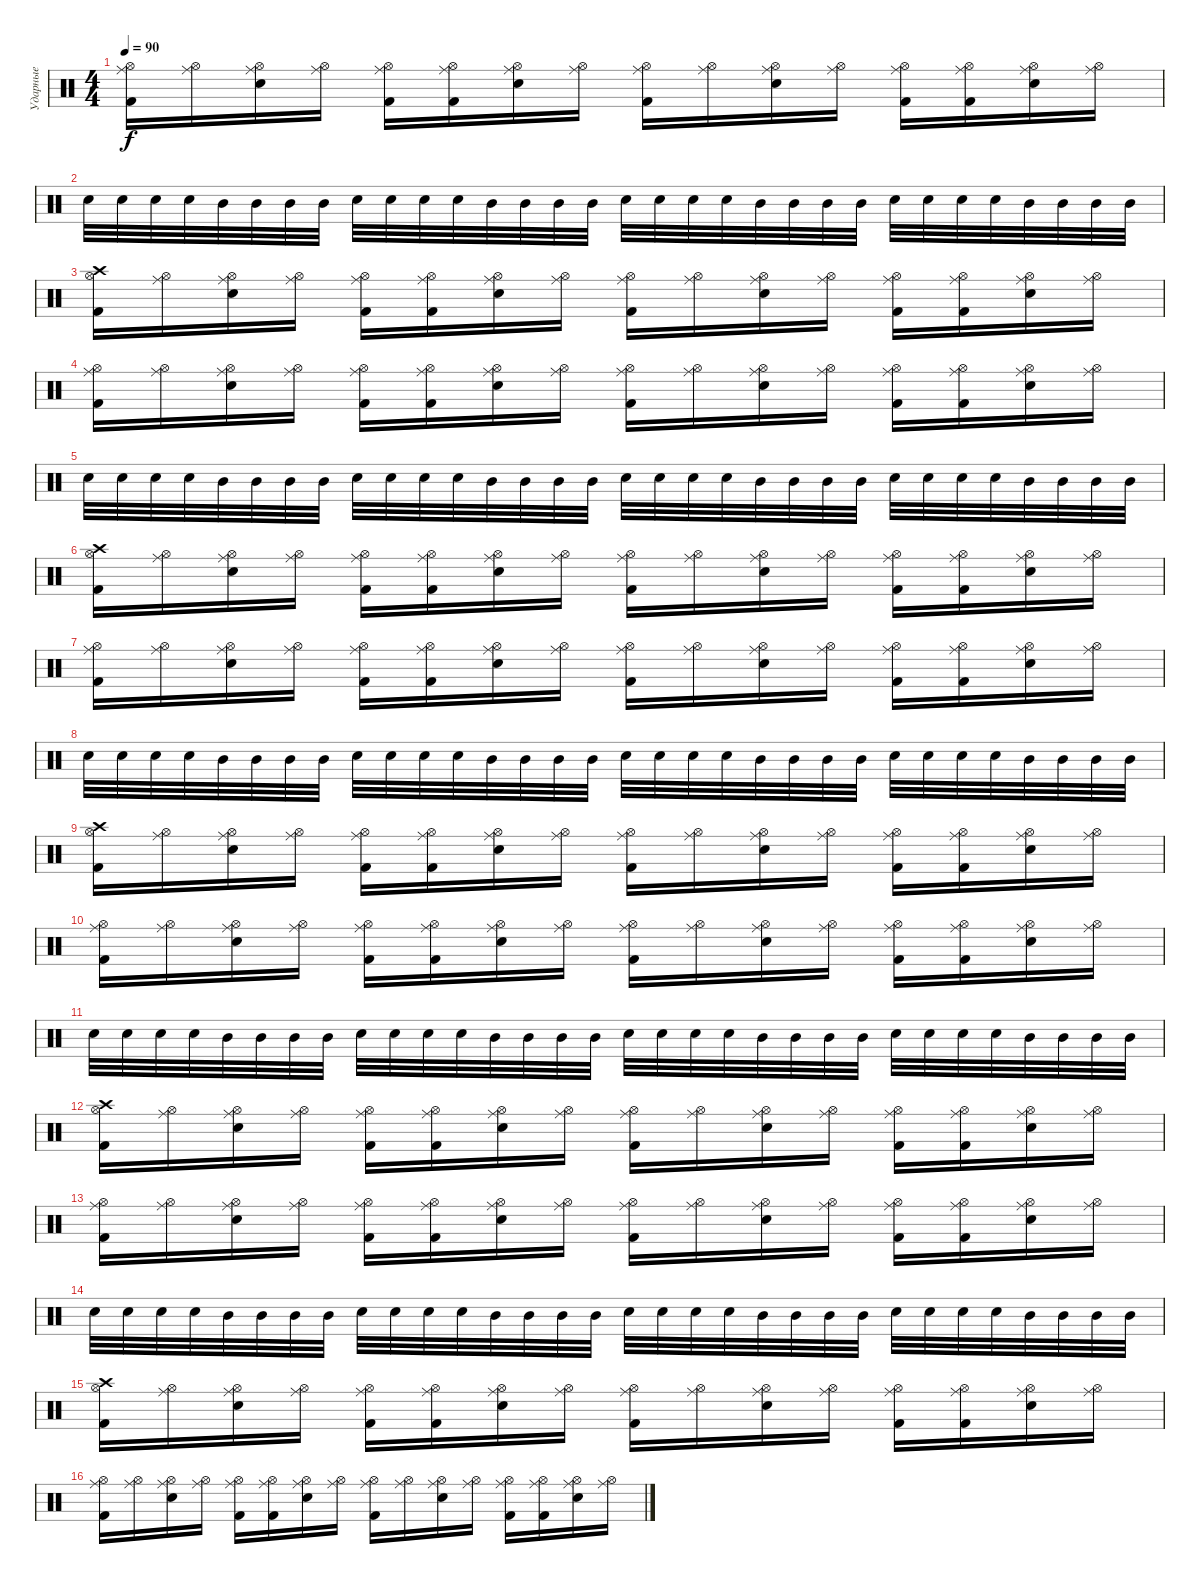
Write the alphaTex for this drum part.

\track ("Ударные" "Ударные") {instrument percussion}
\staff {score}
\articulation defaults
\ts (4 4)
\tempo 90
\clef neutral
\ks c
("Kick (hit) 2" "Ride (middle)" "Hi-Hat (open)").16{dy f} ("Ride (middle)" "Hi-Hat (open)").16 ("Electric Snare (hit)" "Ride (middle)" "Hi-Hat (open)").16 ("Ride (middle)" "Hi-Hat (open)").16 ("Kick (hit) 2" "Ride (middle)" "Hi-Hat (open)").16 ("Kick (hit) 2" "Ride (middle)" "Hi-Hat (open)").16 ("Electric Snare (hit)" "Ride (middle)" "Hi-Hat (open)").16 ("Ride (middle)" "Hi-Hat (open)").16 ("Kick (hit) 2" "Ride (middle)" "Hi-Hat (open)").16 ("Ride (middle)" "Hi-Hat (open)").16 ("Electric Snare (hit)" "Ride (middle)" "Hi-Hat (open)").16 ("Ride (middle)" "Hi-Hat (open)").16 ("Kick (hit) 2" "Ride (middle)" "Hi-Hat (open)").16 ("Kick (hit) 2" "Ride (middle)" "Hi-Hat (open)").16 ("Electric Snare (hit)" "Ride (middle)" "Hi-Hat (open)").16 ("Ride (middle)" "Hi-Hat (open)").16 |
"Electric Snare (hit)".32 "Electric Snare (hit)".32 "Electric Snare (hit)".32 "Electric Snare (hit)".32 "Mid Tom (hit)".32 "Mid Tom (hit)".32 "Mid Tom (hit)".32 "Mid Tom (hit)".32 "Electric Snare (hit)".32 "Electric Snare (hit)".32 "Electric Snare (hit)".32 "Electric Snare (hit)".32 "Mid Tom (hit)".32 "Mid Tom (hit)".32 "Mid Tom (hit)".32 "Mid Tom (hit)".32 "Electric Snare (hit)".32 "Electric Snare (hit)".32 "Electric Snare (hit)".32 "Electric Snare (hit)".32 "Mid Tom (hit)".32 "Mid Tom (hit)".32 "Mid Tom (hit)".32 "Mid Tom (hit)".32 "Electric Snare (hit)".32 "Electric Snare (hit)".32 "Electric Snare (hit)".32 "Electric Snare (hit)".32 "Mid Tom (hit)".32 "Mid Tom (hit)".32 "Mid Tom (hit)".32 "Mid Tom (hit)".32 |
("Kick (hit) 2" "Crash high (hit)" "Hi-Hat (open)").16 ("Ride (middle)" "Hi-Hat (open)").16 ("Electric Snare (hit)" "Ride (middle)" "Hi-Hat (open)").16 ("Ride (middle)" "Hi-Hat (open)").16 ("Kick (hit) 2" "Ride (middle)" "Hi-Hat (open)").16 ("Kick (hit) 2" "Ride (middle)" "Hi-Hat (open)").16 ("Electric Snare (hit)" "Ride (middle)" "Hi-Hat (open)").16 ("Ride (middle)" "Hi-Hat (open)").16 ("Kick (hit) 2" "Ride (middle)" "Hi-Hat (open)").16 ("Ride (middle)" "Hi-Hat (open)").16 ("Electric Snare (hit)" "Ride (middle)" "Hi-Hat (open)").16 ("Ride (middle)" "Hi-Hat (open)").16 ("Kick (hit) 2" "Ride (middle)" "Hi-Hat (open)").16 ("Kick (hit) 2" "Ride (middle)" "Hi-Hat (open)").16 ("Electric Snare (hit)" "Ride (middle)" "Hi-Hat (open)").16 ("Ride (middle)" "Hi-Hat (open)").16 |
("Kick (hit) 2" "Ride (middle)" "Hi-Hat (open)").16 ("Ride (middle)" "Hi-Hat (open)").16 ("Electric Snare (hit)" "Ride (middle)" "Hi-Hat (open)").16 ("Ride (middle)" "Hi-Hat (open)").16 ("Kick (hit) 2" "Ride (middle)" "Hi-Hat (open)").16 ("Kick (hit) 2" "Ride (middle)" "Hi-Hat (open)").16 ("Electric Snare (hit)" "Ride (middle)" "Hi-Hat (open)").16 ("Ride (middle)" "Hi-Hat (open)").16 ("Kick (hit) 2" "Ride (middle)" "Hi-Hat (open)").16 ("Ride (middle)" "Hi-Hat (open)").16 ("Electric Snare (hit)" "Ride (middle)" "Hi-Hat (open)").16 ("Ride (middle)" "Hi-Hat (open)").16 ("Kick (hit) 2" "Ride (middle)" "Hi-Hat (open)").16 ("Kick (hit) 2" "Ride (middle)" "Hi-Hat (open)").16 ("Electric Snare (hit)" "Ride (middle)" "Hi-Hat (open)").16 ("Ride (middle)" "Hi-Hat (open)").16 |
"Electric Snare (hit)".32 "Electric Snare (hit)".32 "Electric Snare (hit)".32 "Electric Snare (hit)".32 "Mid Tom (hit)".32 "Mid Tom (hit)".32 "Mid Tom (hit)".32 "Mid Tom (hit)".32 "Electric Snare (hit)".32 "Electric Snare (hit)".32 "Electric Snare (hit)".32 "Electric Snare (hit)".32 "Mid Tom (hit)".32 "Mid Tom (hit)".32 "Mid Tom (hit)".32 "Mid Tom (hit)".32 "Electric Snare (hit)".32 "Electric Snare (hit)".32 "Electric Snare (hit)".32 "Electric Snare (hit)".32 "Mid Tom (hit)".32 "Mid Tom (hit)".32 "Mid Tom (hit)".32 "Mid Tom (hit)".32 "Electric Snare (hit)".32 "Electric Snare (hit)".32 "Electric Snare (hit)".32 "Electric Snare (hit)".32 "Mid Tom (hit)".32 "Mid Tom (hit)".32 "Mid Tom (hit)".32 "Mid Tom (hit)".32 |
("Kick (hit) 2" "Crash high (hit)" "Hi-Hat (open)").16 ("Ride (middle)" "Hi-Hat (open)").16 ("Electric Snare (hit)" "Ride (middle)" "Hi-Hat (open)").16 ("Ride (middle)" "Hi-Hat (open)").16 ("Kick (hit) 2" "Ride (middle)" "Hi-Hat (open)").16 ("Kick (hit) 2" "Ride (middle)" "Hi-Hat (open)").16 ("Electric Snare (hit)" "Ride (middle)" "Hi-Hat (open)").16 ("Ride (middle)" "Hi-Hat (open)").16 ("Kick (hit) 2" "Ride (middle)" "Hi-Hat (open)").16 ("Ride (middle)" "Hi-Hat (open)").16 ("Electric Snare (hit)" "Ride (middle)" "Hi-Hat (open)").16 ("Ride (middle)" "Hi-Hat (open)").16 ("Kick (hit) 2" "Ride (middle)" "Hi-Hat (open)").16 ("Kick (hit) 2" "Ride (middle)" "Hi-Hat (open)").16 ("Electric Snare (hit)" "Ride (middle)" "Hi-Hat (open)").16 ("Ride (middle)" "Hi-Hat (open)").16 |
("Kick (hit) 2" "Ride (middle)" "Hi-Hat (open)").16 ("Ride (middle)" "Hi-Hat (open)").16 ("Electric Snare (hit)" "Ride (middle)" "Hi-Hat (open)").16 ("Ride (middle)" "Hi-Hat (open)").16 ("Kick (hit) 2" "Ride (middle)" "Hi-Hat (open)").16 ("Kick (hit) 2" "Ride (middle)" "Hi-Hat (open)").16 ("Electric Snare (hit)" "Ride (middle)" "Hi-Hat (open)").16 ("Ride (middle)" "Hi-Hat (open)").16 ("Kick (hit) 2" "Ride (middle)" "Hi-Hat (open)").16 ("Ride (middle)" "Hi-Hat (open)").16 ("Electric Snare (hit)" "Ride (middle)" "Hi-Hat (open)").16 ("Ride (middle)" "Hi-Hat (open)").16 ("Kick (hit) 2" "Ride (middle)" "Hi-Hat (open)").16 ("Kick (hit) 2" "Ride (middle)" "Hi-Hat (open)").16 ("Electric Snare (hit)" "Ride (middle)" "Hi-Hat (open)").16 ("Ride (middle)" "Hi-Hat (open)").16 |
"Electric Snare (hit)".32 "Electric Snare (hit)".32 "Electric Snare (hit)".32 "Electric Snare (hit)".32 "Mid Tom (hit)".32 "Mid Tom (hit)".32 "Mid Tom (hit)".32 "Mid Tom (hit)".32 "Electric Snare (hit)".32 "Electric Snare (hit)".32 "Electric Snare (hit)".32 "Electric Snare (hit)".32 "Mid Tom (hit)".32 "Mid Tom (hit)".32 "Mid Tom (hit)".32 "Mid Tom (hit)".32 "Electric Snare (hit)".32 "Electric Snare (hit)".32 "Electric Snare (hit)".32 "Electric Snare (hit)".32 "Mid Tom (hit)".32 "Mid Tom (hit)".32 "Mid Tom (hit)".32 "Mid Tom (hit)".32 "Electric Snare (hit)".32 "Electric Snare (hit)".32 "Electric Snare (hit)".32 "Electric Snare (hit)".32 "Mid Tom (hit)".32 "Mid Tom (hit)".32 "Mid Tom (hit)".32 "Mid Tom (hit)".32 |
("Kick (hit) 2" "Crash high (hit)" "Hi-Hat (open)").16 ("Ride (middle)" "Hi-Hat (open)").16 ("Electric Snare (hit)" "Ride (middle)" "Hi-Hat (open)").16 ("Ride (middle)" "Hi-Hat (open)").16 ("Kick (hit) 2" "Ride (middle)" "Hi-Hat (open)").16 ("Kick (hit) 2" "Ride (middle)" "Hi-Hat (open)").16 ("Electric Snare (hit)" "Ride (middle)" "Hi-Hat (open)").16 ("Ride (middle)" "Hi-Hat (open)").16 ("Kick (hit) 2" "Ride (middle)" "Hi-Hat (open)").16 ("Ride (middle)" "Hi-Hat (open)").16 ("Electric Snare (hit)" "Ride (middle)" "Hi-Hat (open)").16 ("Ride (middle)" "Hi-Hat (open)").16 ("Kick (hit) 2" "Ride (middle)" "Hi-Hat (open)").16 ("Kick (hit) 2" "Ride (middle)" "Hi-Hat (open)").16 ("Electric Snare (hit)" "Ride (middle)" "Hi-Hat (open)").16 ("Ride (middle)" "Hi-Hat (open)").16 |
("Kick (hit) 2" "Ride (middle)" "Hi-Hat (open)").16 ("Ride (middle)" "Hi-Hat (open)").16 ("Electric Snare (hit)" "Ride (middle)" "Hi-Hat (open)").16 ("Ride (middle)" "Hi-Hat (open)").16 ("Kick (hit) 2" "Ride (middle)" "Hi-Hat (open)").16 ("Kick (hit) 2" "Ride (middle)" "Hi-Hat (open)").16 ("Electric Snare (hit)" "Ride (middle)" "Hi-Hat (open)").16 ("Ride (middle)" "Hi-Hat (open)").16 ("Kick (hit) 2" "Ride (middle)" "Hi-Hat (open)").16 ("Ride (middle)" "Hi-Hat (open)").16 ("Electric Snare (hit)" "Ride (middle)" "Hi-Hat (open)").16 ("Ride (middle)" "Hi-Hat (open)").16 ("Kick (hit) 2" "Ride (middle)" "Hi-Hat (open)").16 ("Kick (hit) 2" "Ride (middle)" "Hi-Hat (open)").16 ("Electric Snare (hit)" "Ride (middle)" "Hi-Hat (open)").16 ("Ride (middle)" "Hi-Hat (open)").16 |
"Electric Snare (hit)".32 "Electric Snare (hit)".32 "Electric Snare (hit)".32 "Electric Snare (hit)".32 "Mid Tom (hit)".32 "Mid Tom (hit)".32 "Mid Tom (hit)".32 "Mid Tom (hit)".32 "Electric Snare (hit)".32 "Electric Snare (hit)".32 "Electric Snare (hit)".32 "Electric Snare (hit)".32 "Mid Tom (hit)".32 "Mid Tom (hit)".32 "Mid Tom (hit)".32 "Mid Tom (hit)".32 "Electric Snare (hit)".32 "Electric Snare (hit)".32 "Electric Snare (hit)".32 "Electric Snare (hit)".32 "Mid Tom (hit)".32 "Mid Tom (hit)".32 "Mid Tom (hit)".32 "Mid Tom (hit)".32 "Electric Snare (hit)".32 "Electric Snare (hit)".32 "Electric Snare (hit)".32 "Electric Snare (hit)".32 "Mid Tom (hit)".32 "Mid Tom (hit)".32 "Mid Tom (hit)".32 "Mid Tom (hit)".32 |
("Kick (hit) 2" "Crash high (hit)" "Hi-Hat (open)").16 ("Ride (middle)" "Hi-Hat (open)").16 ("Electric Snare (hit)" "Ride (middle)" "Hi-Hat (open)").16 ("Ride (middle)" "Hi-Hat (open)").16 ("Kick (hit) 2" "Ride (middle)" "Hi-Hat (open)").16 ("Kick (hit) 2" "Ride (middle)" "Hi-Hat (open)").16 ("Electric Snare (hit)" "Ride (middle)" "Hi-Hat (open)").16 ("Ride (middle)" "Hi-Hat (open)").16 ("Kick (hit) 2" "Ride (middle)" "Hi-Hat (open)").16 ("Ride (middle)" "Hi-Hat (open)").16 ("Electric Snare (hit)" "Ride (middle)" "Hi-Hat (open)").16 ("Ride (middle)" "Hi-Hat (open)").16 ("Kick (hit) 2" "Ride (middle)" "Hi-Hat (open)").16 ("Kick (hit) 2" "Ride (middle)" "Hi-Hat (open)").16 ("Electric Snare (hit)" "Ride (middle)" "Hi-Hat (open)").16 ("Ride (middle)" "Hi-Hat (open)").16 |
("Kick (hit) 2" "Ride (middle)" "Hi-Hat (open)").16 ("Ride (middle)" "Hi-Hat (open)").16 ("Electric Snare (hit)" "Ride (middle)" "Hi-Hat (open)").16 ("Ride (middle)" "Hi-Hat (open)").16 ("Kick (hit) 2" "Ride (middle)" "Hi-Hat (open)").16 ("Kick (hit) 2" "Ride (middle)" "Hi-Hat (open)").16 ("Electric Snare (hit)" "Ride (middle)" "Hi-Hat (open)").16 ("Ride (middle)" "Hi-Hat (open)").16 ("Kick (hit) 2" "Ride (middle)" "Hi-Hat (open)").16 ("Ride (middle)" "Hi-Hat (open)").16 ("Electric Snare (hit)" "Ride (middle)" "Hi-Hat (open)").16 ("Ride (middle)" "Hi-Hat (open)").16 ("Kick (hit) 2" "Ride (middle)" "Hi-Hat (open)").16 ("Kick (hit) 2" "Ride (middle)" "Hi-Hat (open)").16 ("Electric Snare (hit)" "Ride (middle)" "Hi-Hat (open)").16 ("Ride (middle)" "Hi-Hat (open)").16 |
"Electric Snare (hit)".32 "Electric Snare (hit)".32 "Electric Snare (hit)".32 "Electric Snare (hit)".32 "Mid Tom (hit)".32 "Mid Tom (hit)".32 "Mid Tom (hit)".32 "Mid Tom (hit)".32 "Electric Snare (hit)".32 "Electric Snare (hit)".32 "Electric Snare (hit)".32 "Electric Snare (hit)".32 "Mid Tom (hit)".32 "Mid Tom (hit)".32 "Mid Tom (hit)".32 "Mid Tom (hit)".32 "Electric Snare (hit)".32 "Electric Snare (hit)".32 "Electric Snare (hit)".32 "Electric Snare (hit)".32 "Mid Tom (hit)".32 "Mid Tom (hit)".32 "Mid Tom (hit)".32 "Mid Tom (hit)".32 "Electric Snare (hit)".32 "Electric Snare (hit)".32 "Electric Snare (hit)".32 "Electric Snare (hit)".32 "Mid Tom (hit)".32 "Mid Tom (hit)".32 "Mid Tom (hit)".32 "Mid Tom (hit)".32 |
("Kick (hit) 2" "Crash high (hit)" "Hi-Hat (open)").16 ("Ride (middle)" "Hi-Hat (open)").16 ("Electric Snare (hit)" "Ride (middle)" "Hi-Hat (open)").16 ("Ride (middle)" "Hi-Hat (open)").16 ("Kick (hit) 2" "Ride (middle)" "Hi-Hat (open)").16 ("Kick (hit) 2" "Ride (middle)" "Hi-Hat (open)").16 ("Electric Snare (hit)" "Ride (middle)" "Hi-Hat (open)").16 ("Ride (middle)" "Hi-Hat (open)").16 ("Kick (hit) 2" "Ride (middle)" "Hi-Hat (open)").16 ("Ride (middle)" "Hi-Hat (open)").16 ("Electric Snare (hit)" "Ride (middle)" "Hi-Hat (open)").16 ("Ride (middle)" "Hi-Hat (open)").16 ("Kick (hit) 2" "Ride (middle)" "Hi-Hat (open)").16 ("Kick (hit) 2" "Ride (middle)" "Hi-Hat (open)").16 ("Electric Snare (hit)" "Ride (middle)" "Hi-Hat (open)").16 ("Ride (middle)" "Hi-Hat (open)").16 |
("Kick (hit) 2" "Ride (middle)" "Hi-Hat (open)").16 ("Ride (middle)" "Hi-Hat (open)").16 ("Electric Snare (hit)" "Ride (middle)" "Hi-Hat (open)").16 ("Ride (middle)" "Hi-Hat (open)").16 ("Kick (hit) 2" "Ride (middle)" "Hi-Hat (open)").16 ("Kick (hit) 2" "Ride (middle)" "Hi-Hat (open)").16 ("Electric Snare (hit)" "Ride (middle)" "Hi-Hat (open)").16 ("Ride (middle)" "Hi-Hat (open)").16 ("Kick (hit) 2" "Ride (middle)" "Hi-Hat (open)").16 ("Ride (middle)" "Hi-Hat (open)").16 ("Electric Snare (hit)" "Ride (middle)" "Hi-Hat (open)").16 ("Ride (middle)" "Hi-Hat (open)").16 ("Kick (hit) 2" "Ride (middle)" "Hi-Hat (open)").16 ("Kick (hit) 2" "Ride (middle)" "Hi-Hat (open)").16 ("Electric Snare (hit)" "Ride (middle)" "Hi-Hat (open)").16 ("Ride (middle)" "Hi-Hat (open)").16
